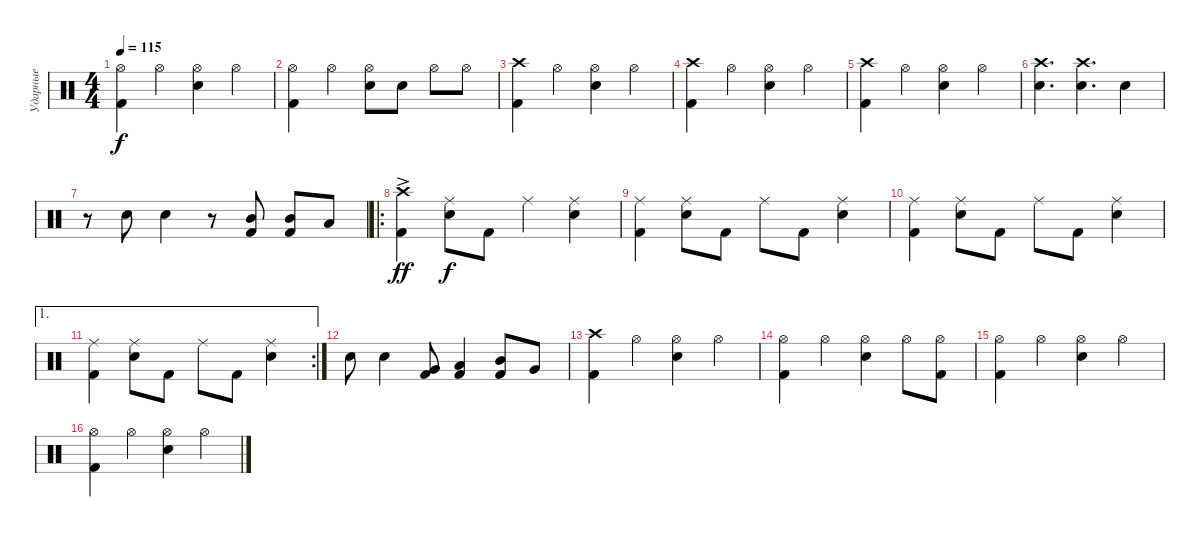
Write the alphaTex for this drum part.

\track ("Ударные" "Ударные") {instrument percussion}
\staff {score}
\articulation defaults
\ts (4 4)
\tempo 115
\clef neutral
\ks c
("Kick (hit) 2" "Hi-Hat (open)").4{dy f} "Hi-Hat (open)".4 ("Snare (hit) 2" "Hi-Hat (open)").4 "Hi-Hat (open)".4 |
("Kick (hit) 2" "Hi-Hat (open)").4 "Hi-Hat (open)".4 ("Snare (hit) 2" "Hi-Hat (open)").8 "Snare (hit) 2".8 "Hi-Hat (open)".8 "Hi-Hat (open)".8 |
("Kick (hit) 2" "Crash high (hit)").4 "Hi-Hat (open)".4 ("Snare (hit) 2" "Hi-Hat (open)").4 "Hi-Hat (open)".4 |
("Kick (hit) 2" "Crash high (hit)").4 "Hi-Hat (open)".4 ("Snare (hit) 2" "Hi-Hat (open)").4 "Hi-Hat (open)".4 |
("Kick (hit) 2" "Crash high (hit)").4 "Hi-Hat (open)".4 ("Snare (hit) 2" "Hi-Hat (open)").4 "Hi-Hat (open)".4 |
("Snare (hit) 2" "Crash high (hit)").4{d} ("Snare (hit) 2" "Crash high (hit)").4{d} "Snare (hit) 2".4 |
r.8 "Snare (hit) 2".8 "Snare (hit) 2".4 r.8 ("Kick (hit) 2" "Mid Tom (hit)").8 ("Kick (hit) 2" "Mid Tom (hit)").8 "Low Tom (hit)".8 |
\ro
("Kick (hit) 2" "Crash high (hit)"{ac}).4{dy ff} ("Snare (hit) 2" "Ride (middle)").8{dy f} "Kick (hit) 2".8 "Ride (middle)".4 ("Snare (hit) 2" "Ride (middle)").4 |
("Kick (hit) 2" "Ride (middle)").4 ("Snare (hit) 2" "Ride (middle)").8 "Kick (hit) 2".8 "Ride (middle)".8 "Kick (hit) 2".8 ("Snare (hit) 2" "Ride (middle)").4 |
("Kick (hit) 2" "Ride (middle)").4 ("Snare (hit) 2" "Ride (middle)").8 "Kick (hit) 2".8 "Ride (middle)".8 "Kick (hit) 2".8 ("Snare (hit) 2" "Ride (middle)").4 |
\ae 1
\rc 2
("Kick (hit) 2" "Ride (middle)").4 ("Snare (hit) 2" "Ride (middle)").8 "Kick (hit) 2".8 "Ride (middle)".8 "Kick (hit) 2".8 ("Snare (hit) 2" "Ride (middle)").4 |
"Snare (hit) 2".8 "Electric Snare (hit)".4 ("Kick (hit) 2" "Very Low Tom (hit)").8 ("Kick (hit) 2" "Low Floor Tom (hit)").4 ("Kick (hit) 2" "Mid Tom (hit)").8 "Very Low Tom (hit)".8 |
("Kick (hit) 2" "Crash high (hit)").4 "Hi-Hat (open)".4 ("Snare (hit) 2" "Hi-Hat (open)").4 "Hi-Hat (open)".4 |
("Kick (hit) 2" "Hi-Hat (open)").4 "Hi-Hat (open)".4 ("Snare (hit) 2" "Hi-Hat (open)").4 "Hi-Hat (open)".8 ("Kick (hit) 2" "Hi-Hat (open)").8 |
("Kick (hit) 2" "Hi-Hat (open)").4 "Hi-Hat (open)".4 ("Snare (hit) 2" "Hi-Hat (open)").4 "Hi-Hat (open)".4 |
("Kick (hit) 2" "Hi-Hat (open)").4 "Hi-Hat (open)".4 ("Snare (hit) 2" "Hi-Hat (open)").4 "Hi-Hat (open)".4
